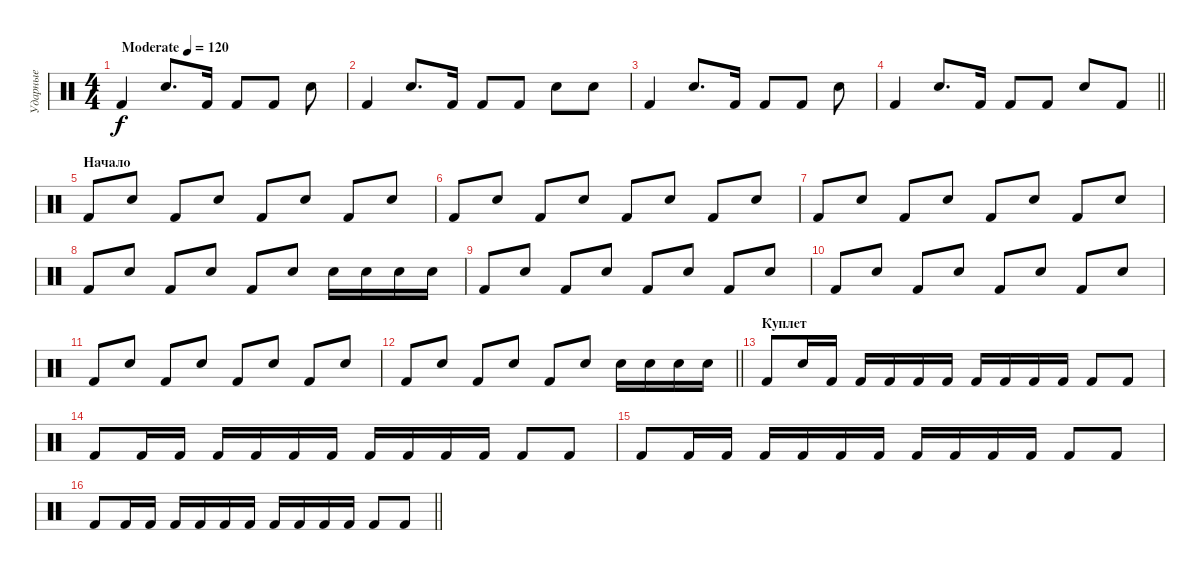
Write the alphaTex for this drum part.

\track ("Ударные" "Ударные") {instrument percussion}
\staff {score}
\articulation defaults
\ts (4 4)
\tempo (120 "Moderate")
\clef neutral
\ks c "Kick (hit) 2".4{dy f} "Electric Snare (hit)".8{d} "Kick (hit) 2".16 "Kick (hit) 2".8 "Kick (hit) 2".8 "Electric Snare (hit)".8
|
"Kick (hit) 2".4 "Electric Snare (hit)".8{d} "Kick (hit) 2".16 "Kick (hit) 2".8 "Kick (hit) 2".8 "Electric Snare (hit)".8 "Electric Snare (hit)".8 |
"Kick (hit) 2".4 "Electric Snare (hit)".8{d} "Kick (hit) 2".16 "Kick (hit) 2".8 "Kick (hit) 2".8 "Electric Snare (hit)".8 |
\barLineRight lightlight "Kick (hit) 2".4 "Electric Snare (hit)".8{d} "Kick (hit) 2".16 "Kick (hit) 2".8 "Kick (hit) 2".8 "Electric Snare (hit)".8 "Kick (hit) 2".8
|
\section ("" "Начало")
"Kick (hit) 2".8 "Electric Snare (hit)".8 "Kick (hit) 2".8 "Electric Snare (hit)".8 "Kick (hit) 2".8 "Electric Snare (hit)".8 "Kick (hit) 2".8 "Electric Snare (hit)".8 |
"Kick (hit) 2".8 "Electric Snare (hit)".8 "Kick (hit) 2".8 "Electric Snare (hit)".8 "Kick (hit) 2".8 "Electric Snare (hit)".8 "Kick (hit) 2".8 "Electric Snare (hit)".8 |
"Kick (hit) 2".8 "Electric Snare (hit)".8 "Kick (hit) 2".8 "Electric Snare (hit)".8 "Kick (hit) 2".8 "Electric Snare (hit)".8 "Kick (hit) 2".8 "Electric Snare (hit)".8 |
"Kick (hit) 2".8 "Electric Snare (hit)".8 "Kick (hit) 2".8 "Electric Snare (hit)".8 "Kick (hit) 2".8 "Electric Snare (hit)".8 "Electric Snare (hit)".16 "Electric Snare (hit)".16 "Electric Snare (hit)".16 "Electric Snare (hit)".16 |
"Kick (hit) 2".8 "Electric Snare (hit)".8 "Kick (hit) 2".8 "Electric Snare (hit)".8 "Kick (hit) 2".8 "Electric Snare (hit)".8 "Kick (hit) 2".8 "Electric Snare (hit)".8 |
"Kick (hit) 2".8 "Electric Snare (hit)".8 "Kick (hit) 2".8 "Electric Snare (hit)".8 "Kick (hit) 2".8 "Electric Snare (hit)".8 "Kick (hit) 2".8 "Electric Snare (hit)".8 |
"Kick (hit) 2".8 "Electric Snare (hit)".8 "Kick (hit) 2".8 "Electric Snare (hit)".8 "Kick (hit) 2".8 "Electric Snare (hit)".8 "Kick (hit) 2".8 "Electric Snare (hit)".8 |
\barLineRight lightlight "Kick (hit) 2".8 "Electric Snare (hit)".8 "Kick (hit) 2".8 "Electric Snare (hit)".8 "Kick (hit) 2".8 "Electric Snare (hit)".8 "Electric Snare (hit)".16 "Electric Snare (hit)".16 "Electric Snare (hit)".16 "Electric Snare (hit)".16
|
\section ("" "Куплет")
"Kick (hit) 2".8 "Electric Snare (hit)".16 "Kick (hit) 2".16 "Kick (hit) 2".16 "Kick (hit) 2".16 "Kick (hit) 2".16 "Kick (hit) 2".16 "Kick (hit) 2".16 "Kick (hit) 2".16 "Kick (hit) 2".16 "Kick (hit) 2".16 "Kick (hit) 2".8 "Kick (hit) 2".8 |
"Kick (hit) 2".8 "Kick (hit) 2".16 "Kick (hit) 2".16 "Kick (hit) 2".16 "Kick (hit) 2".16 "Kick (hit) 2".16 "Kick (hit) 2".16 "Kick (hit) 2".16 "Kick (hit) 2".16 "Kick (hit) 2".16 "Kick (hit) 2".16 "Kick (hit) 2".8 "Kick (hit) 2".8 |
"Kick (hit) 2".8 "Kick (hit) 2".16 "Kick (hit) 2".16 "Kick (hit) 2".16 "Kick (hit) 2".16 "Kick (hit) 2".16 "Kick (hit) 2".16 "Kick (hit) 2".16 "Kick (hit) 2".16 "Kick (hit) 2".16 "Kick (hit) 2".16 "Kick (hit) 2".8 "Kick (hit) 2".8 |
\barLineRight lightlight "Kick (hit) 2".8 "Kick (hit) 2".16 "Kick (hit) 2".16 "Kick (hit) 2".16 "Kick (hit) 2".16 "Kick (hit) 2".16 "Kick (hit) 2".16 "Kick (hit) 2".16 "Kick (hit) 2".16 "Kick (hit) 2".16 "Kick (hit) 2".16 "Kick (hit) 2".8 "Kick (hit) 2".8
